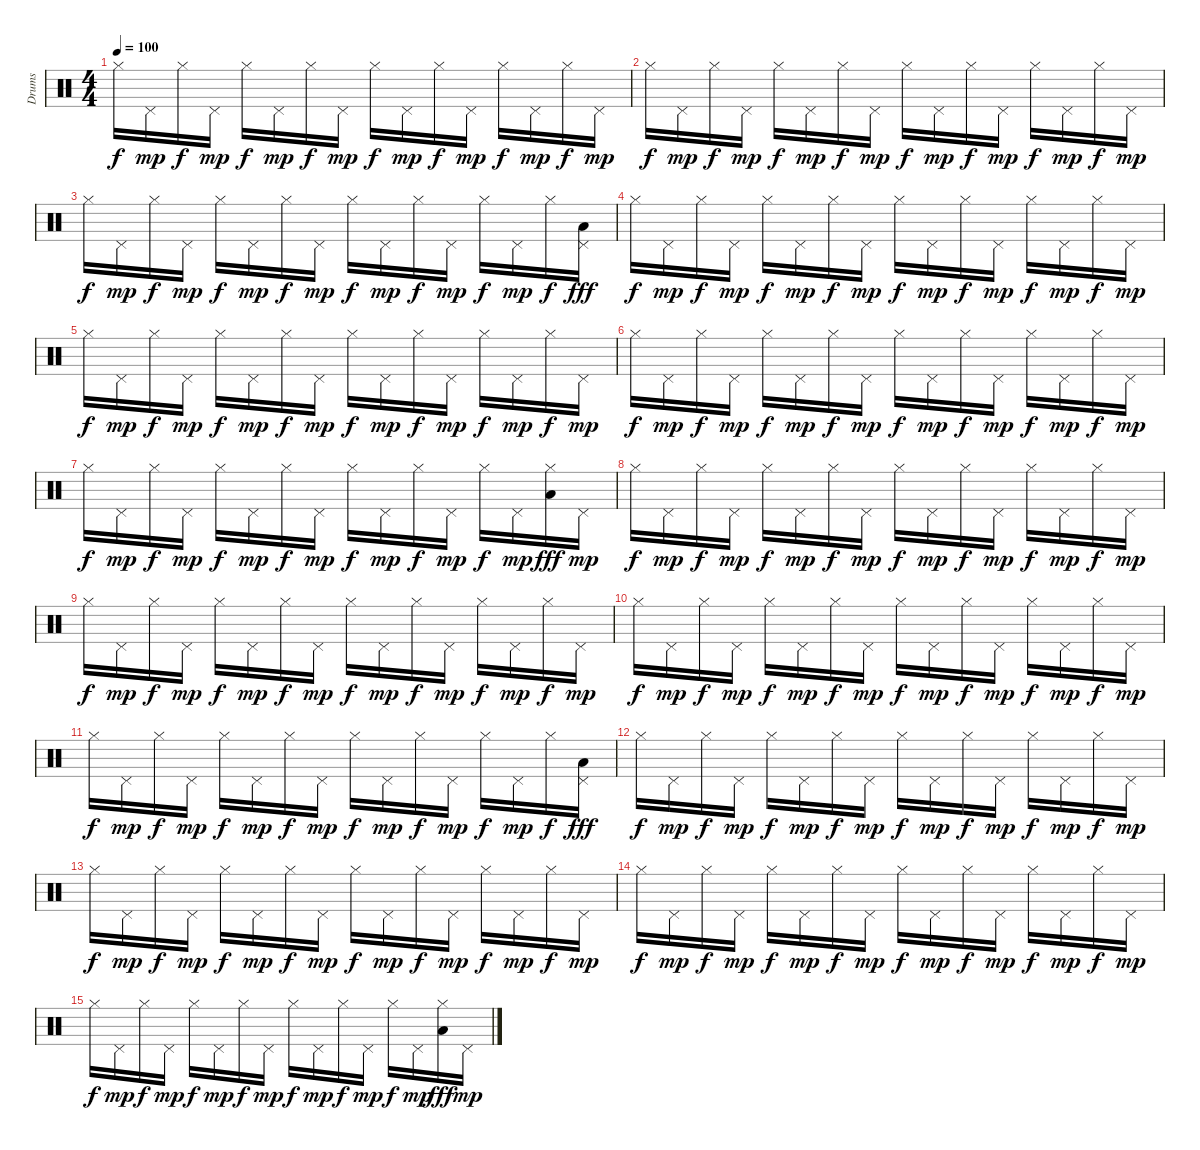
\track ("Drums" "Drums") {instrument percussion}
\staff {score}
\articulation defaults
\ts (4 4)
\tempo 100
\clef neutral
\ks c "Hi-Hat (closed)".16{dy f} "Pedal Hi-Hat (hit)".16{dy mp} "Hi-Hat (closed)".16{dy f} "Pedal Hi-Hat (hit)".16{dy mp} "Hi-Hat (closed)".16{dy f} "Pedal Hi-Hat (hit)".16{dy mp} "Hi-Hat (closed)".16{dy f} "Pedal Hi-Hat (hit)".16{dy mp} "Hi-Hat (closed)".16{dy f} "Pedal Hi-Hat (hit)".16{dy mp} "Hi-Hat (closed)".16{dy f} "Pedal Hi-Hat (hit)".16{dy mp} "Hi-Hat (closed)".16{dy f} "Pedal Hi-Hat (hit)".16{dy mp} "Hi-Hat (closed)".16{dy f} "Pedal Hi-Hat (hit)".16{dy mp}
|
"Hi-Hat (closed)".16{dy f} "Pedal Hi-Hat (hit)".16{dy mp} "Hi-Hat (closed)".16{dy f} "Pedal Hi-Hat (hit)".16{dy mp} "Hi-Hat (closed)".16{dy f} "Pedal Hi-Hat (hit)".16{dy mp} "Hi-Hat (closed)".16{dy f} "Pedal Hi-Hat (hit)".16{dy mp} "Hi-Hat (closed)".16{dy f} "Pedal Hi-Hat (hit)".16{dy mp} "Hi-Hat (closed)".16{dy f} "Pedal Hi-Hat (hit)".16{dy mp} "Hi-Hat (closed)".16{dy f} "Pedal Hi-Hat (hit)".16{dy mp} "Hi-Hat (closed)".16{dy f} "Pedal Hi-Hat (hit)".16{dy mp} |
"Hi-Hat (closed)".16{dy f} "Pedal Hi-Hat (hit)".16{dy mp} "Hi-Hat (closed)".16{dy f} "Pedal Hi-Hat (hit)".16{dy mp} "Hi-Hat (closed)".16{dy f} "Pedal Hi-Hat (hit)".16{dy mp} "Hi-Hat (closed)".16{dy f} "Pedal Hi-Hat (hit)".16{dy mp} "Hi-Hat (closed)".16{dy f} "Pedal Hi-Hat (hit)".16{dy mp} "Hi-Hat (closed)".16{dy f} "Pedal Hi-Hat (hit)".16{dy mp} "Hi-Hat (closed)".16{dy f} "Pedal Hi-Hat (hit)".16{dy mp} "Hi-Hat (closed)".16{dy f} ("Pedal Hi-Hat (hit)" "Low Tom (hit)").16{dy fff} |
"Hi-Hat (closed)".16{dy f} "Pedal Hi-Hat (hit)".16{dy mp} "Hi-Hat (closed)".16{dy f} "Pedal Hi-Hat (hit)".16{dy mp} "Hi-Hat (closed)".16{dy f} "Pedal Hi-Hat (hit)".16{dy mp} "Hi-Hat (closed)".16{dy f} "Pedal Hi-Hat (hit)".16{dy mp} "Hi-Hat (closed)".16{dy f} "Pedal Hi-Hat (hit)".16{dy mp} "Hi-Hat (closed)".16{dy f} "Pedal Hi-Hat (hit)".16{dy mp} "Hi-Hat (closed)".16{dy f} "Pedal Hi-Hat (hit)".16{dy mp} "Hi-Hat (closed)".16{dy f} "Pedal Hi-Hat (hit)".16{dy mp} |
"Hi-Hat (closed)".16{dy f} "Pedal Hi-Hat (hit)".16{dy mp} "Hi-Hat (closed)".16{dy f} "Pedal Hi-Hat (hit)".16{dy mp} "Hi-Hat (closed)".16{dy f} "Pedal Hi-Hat (hit)".16{dy mp} "Hi-Hat (closed)".16{dy f} "Pedal Hi-Hat (hit)".16{dy mp} "Hi-Hat (closed)".16{dy f} "Pedal Hi-Hat (hit)".16{dy mp} "Hi-Hat (closed)".16{dy f} "Pedal Hi-Hat (hit)".16{dy mp} "Hi-Hat (closed)".16{dy f} "Pedal Hi-Hat (hit)".16{dy mp} "Hi-Hat (closed)".16{dy f} "Pedal Hi-Hat (hit)".16{dy mp} |
"Hi-Hat (closed)".16{dy f} "Pedal Hi-Hat (hit)".16{dy mp} "Hi-Hat (closed)".16{dy f} "Pedal Hi-Hat (hit)".16{dy mp} "Hi-Hat (closed)".16{dy f} "Pedal Hi-Hat (hit)".16{dy mp} "Hi-Hat (closed)".16{dy f} "Pedal Hi-Hat (hit)".16{dy mp} "Hi-Hat (closed)".16{dy f} "Pedal Hi-Hat (hit)".16{dy mp} "Hi-Hat (closed)".16{dy f} "Pedal Hi-Hat (hit)".16{dy mp} "Hi-Hat (closed)".16{dy f} "Pedal Hi-Hat (hit)".16{dy mp} "Hi-Hat (closed)".16{dy f} "Pedal Hi-Hat (hit)".16{dy mp} |
"Hi-Hat (closed)".16{dy f} "Pedal Hi-Hat (hit)".16{dy mp} "Hi-Hat (closed)".16{dy f} "Pedal Hi-Hat (hit)".16{dy mp} "Hi-Hat (closed)".16{dy f} "Pedal Hi-Hat (hit)".16{dy mp} "Hi-Hat (closed)".16{dy f} "Pedal Hi-Hat (hit)".16{dy mp} "Hi-Hat (closed)".16{dy f} "Pedal Hi-Hat (hit)".16{dy mp} "Hi-Hat (closed)".16{dy f} "Pedal Hi-Hat (hit)".16{dy mp} "Hi-Hat (closed)".16{dy f} "Pedal Hi-Hat (hit)".16{dy mp} ("Hi-Hat (closed)" "Low Tom (hit)").16{dy fff} "Pedal Hi-Hat (hit)".16{dy mp} |
"Hi-Hat (closed)".16{dy f} "Pedal Hi-Hat (hit)".16{dy mp} "Hi-Hat (closed)".16{dy f} "Pedal Hi-Hat (hit)".16{dy mp} "Hi-Hat (closed)".16{dy f} "Pedal Hi-Hat (hit)".16{dy mp} "Hi-Hat (closed)".16{dy f} "Pedal Hi-Hat (hit)".16{dy mp} "Hi-Hat (closed)".16{dy f} "Pedal Hi-Hat (hit)".16{dy mp} "Hi-Hat (closed)".16{dy f} "Pedal Hi-Hat (hit)".16{dy mp} "Hi-Hat (closed)".16{dy f} "Pedal Hi-Hat (hit)".16{dy mp} "Hi-Hat (closed)".16{dy f} "Pedal Hi-Hat (hit)".16{dy mp} |
"Hi-Hat (closed)".16{dy f} "Pedal Hi-Hat (hit)".16{dy mp} "Hi-Hat (closed)".16{dy f} "Pedal Hi-Hat (hit)".16{dy mp} "Hi-Hat (closed)".16{dy f} "Pedal Hi-Hat (hit)".16{dy mp} "Hi-Hat (closed)".16{dy f} "Pedal Hi-Hat (hit)".16{dy mp} "Hi-Hat (closed)".16{dy f} "Pedal Hi-Hat (hit)".16{dy mp} "Hi-Hat (closed)".16{dy f} "Pedal Hi-Hat (hit)".16{dy mp} "Hi-Hat (closed)".16{dy f} "Pedal Hi-Hat (hit)".16{dy mp} "Hi-Hat (closed)".16{dy f} "Pedal Hi-Hat (hit)".16{dy mp} |
"Hi-Hat (closed)".16{dy f} "Pedal Hi-Hat (hit)".16{dy mp} "Hi-Hat (closed)".16{dy f} "Pedal Hi-Hat (hit)".16{dy mp} "Hi-Hat (closed)".16{dy f} "Pedal Hi-Hat (hit)".16{dy mp} "Hi-Hat (closed)".16{dy f} "Pedal Hi-Hat (hit)".16{dy mp} "Hi-Hat (closed)".16{dy f} "Pedal Hi-Hat (hit)".16{dy mp} "Hi-Hat (closed)".16{dy f} "Pedal Hi-Hat (hit)".16{dy mp} "Hi-Hat (closed)".16{dy f} "Pedal Hi-Hat (hit)".16{dy mp} "Hi-Hat (closed)".16{dy f} "Pedal Hi-Hat (hit)".16{dy mp} |
"Hi-Hat (closed)".16{dy f} "Pedal Hi-Hat (hit)".16{dy mp} "Hi-Hat (closed)".16{dy f} "Pedal Hi-Hat (hit)".16{dy mp} "Hi-Hat (closed)".16{dy f} "Pedal Hi-Hat (hit)".16{dy mp} "Hi-Hat (closed)".16{dy f} "Pedal Hi-Hat (hit)".16{dy mp} "Hi-Hat (closed)".16{dy f} "Pedal Hi-Hat (hit)".16{dy mp} "Hi-Hat (closed)".16{dy f} "Pedal Hi-Hat (hit)".16{dy mp} "Hi-Hat (closed)".16{dy f} "Pedal Hi-Hat (hit)".16{dy mp} "Hi-Hat (closed)".16{dy f} ("Pedal Hi-Hat (hit)" "Low Tom (hit)").16{dy fff} |
"Hi-Hat (closed)".16{dy f} "Pedal Hi-Hat (hit)".16{dy mp} "Hi-Hat (closed)".16{dy f} "Pedal Hi-Hat (hit)".16{dy mp} "Hi-Hat (closed)".16{dy f} "Pedal Hi-Hat (hit)".16{dy mp} "Hi-Hat (closed)".16{dy f} "Pedal Hi-Hat (hit)".16{dy mp} "Hi-Hat (closed)".16{dy f} "Pedal Hi-Hat (hit)".16{dy mp} "Hi-Hat (closed)".16{dy f} "Pedal Hi-Hat (hit)".16{dy mp} "Hi-Hat (closed)".16{dy f} "Pedal Hi-Hat (hit)".16{dy mp} "Hi-Hat (closed)".16{dy f} "Pedal Hi-Hat (hit)".16{dy mp} |
"Hi-Hat (closed)".16{dy f} "Pedal Hi-Hat (hit)".16{dy mp} "Hi-Hat (closed)".16{dy f} "Pedal Hi-Hat (hit)".16{dy mp} "Hi-Hat (closed)".16{dy f} "Pedal Hi-Hat (hit)".16{dy mp} "Hi-Hat (closed)".16{dy f} "Pedal Hi-Hat (hit)".16{dy mp} "Hi-Hat (closed)".16{dy f} "Pedal Hi-Hat (hit)".16{dy mp} "Hi-Hat (closed)".16{dy f} "Pedal Hi-Hat (hit)".16{dy mp} "Hi-Hat (closed)".16{dy f} "Pedal Hi-Hat (hit)".16{dy mp} "Hi-Hat (closed)".16{dy f} "Pedal Hi-Hat (hit)".16{dy mp} |
"Hi-Hat (closed)".16{dy f} "Pedal Hi-Hat (hit)".16{dy mp} "Hi-Hat (closed)".16{dy f} "Pedal Hi-Hat (hit)".16{dy mp} "Hi-Hat (closed)".16{dy f} "Pedal Hi-Hat (hit)".16{dy mp} "Hi-Hat (closed)".16{dy f} "Pedal Hi-Hat (hit)".16{dy mp} "Hi-Hat (closed)".16{dy f} "Pedal Hi-Hat (hit)".16{dy mp} "Hi-Hat (closed)".16{dy f} "Pedal Hi-Hat (hit)".16{dy mp} "Hi-Hat (closed)".16{dy f} "Pedal Hi-Hat (hit)".16{dy mp} "Hi-Hat (closed)".16{dy f} "Pedal Hi-Hat (hit)".16{dy mp} |
"Hi-Hat (closed)".16{dy f} "Pedal Hi-Hat (hit)".16{dy mp} "Hi-Hat (closed)".16{dy f} "Pedal Hi-Hat (hit)".16{dy mp} "Hi-Hat (closed)".16{dy f} "Pedal Hi-Hat (hit)".16{dy mp} "Hi-Hat (closed)".16{dy f} "Pedal Hi-Hat (hit)".16{dy mp} "Hi-Hat (closed)".16{dy f} "Pedal Hi-Hat (hit)".16{dy mp} "Hi-Hat (closed)".16{dy f} "Pedal Hi-Hat (hit)".16{dy mp} "Hi-Hat (closed)".16{dy f} "Pedal Hi-Hat (hit)".16{dy mp} ("Hi-Hat (closed)" "Low Tom (hit)").16{dy fff} "Pedal Hi-Hat (hit)".16{dy mp}
